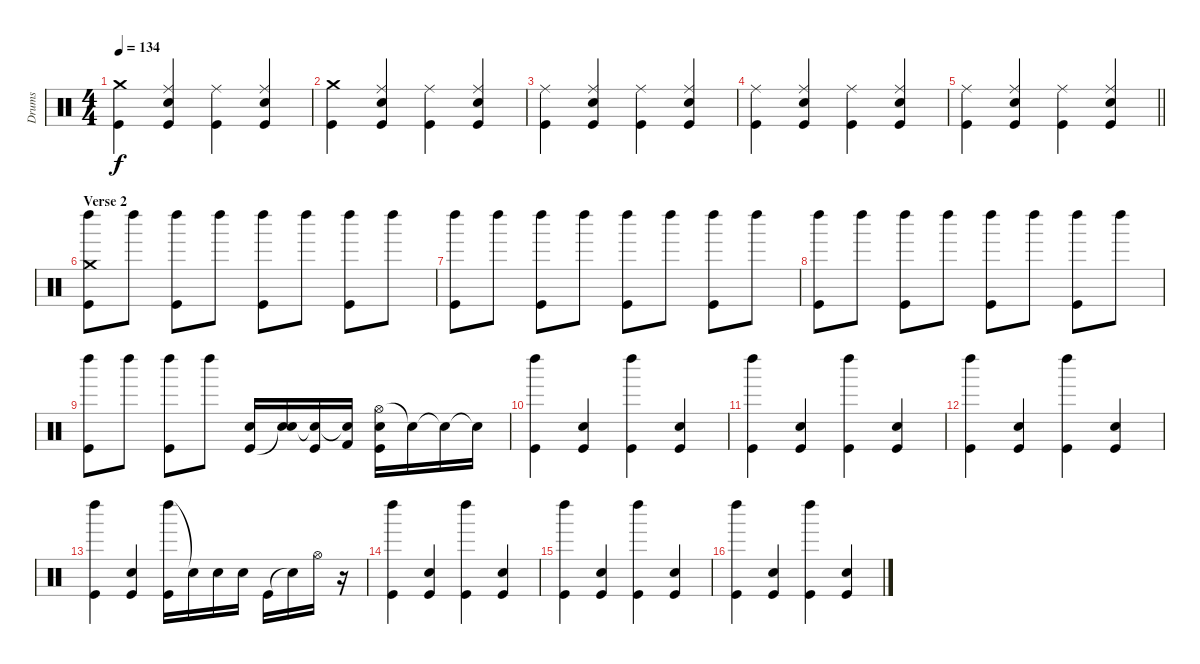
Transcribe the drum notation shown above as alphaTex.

\track ("Drums" "Drums") {solo instrument percussion}
\staff {score}
\articulation defaults
\ts (4 4)
\tempo 134
\clef neutral
\ks c
("Crash medium (hit)" "Kick (hit)").4{dy f} ("Ride (middle)" "Kick (hit)" "Snare (hit) 2").4 ("Ride (middle)" "Kick (hit)").4 ("Ride (middle)" "Kick (hit)" "Snare (hit) 2").4 |
("Crash medium (hit)" "Kick (hit)").4 ("Ride (middle)" "Kick (hit)" "Snare (hit) 2").4 ("Ride (middle)" "Kick (hit)").4 ("Ride (middle)" "Kick (hit)" "Snare (hit) 2").4 |
("Ride (middle)" "Kick (hit)").4 ("Ride (middle)" "Kick (hit)" "Snare (hit) 2").4 ("Ride (middle)" "Kick (hit)").4 ("Ride (middle)" "Kick (hit)" "Snare (hit) 2").4 |
("Ride (middle)" "Kick (hit)").4 ("Ride (middle)" "Kick (hit)" "Snare (hit) 2").4 ("Ride (middle)" "Kick (hit)").4 ("Ride (middle)" "Kick (hit)" "Snare (hit) 2").4 |
\barLineRight lightlight
("Ride (middle)" "Kick (hit)").4 ("Ride (middle)" "Kick (hit)" "Snare (hit) 2").4 ("Ride (middle)" "Kick (hit)").4 ("Ride (middle)" "Kick (hit)" "Snare (hit) 2").4 |
\section ("" "Verse 2")
("Left Maraca (hit)" "Kick (hit)" "Crash medium (hit)").8 "Left Maraca (hit)".8 ("Left Maraca (hit)" "Kick (hit)").8 "Left Maraca (hit)".8 ("Left Maraca (hit)" "Kick (hit)").8 "Left Maraca (hit)".8 ("Left Maraca (hit)" "Kick (hit)").8 "Left Maraca (hit)".8 |
("Left Maraca (hit)" "Kick (hit)").8 "Left Maraca (hit)".8 ("Left Maraca (hit)" "Kick (hit)").8 "Left Maraca (hit)".8 ("Left Maraca (hit)" "Kick (hit)").8 "Left Maraca (hit)".8 ("Left Maraca (hit)" "Kick (hit)").8 "Left Maraca (hit)".8 |
("Left Maraca (hit)" "Kick (hit)").8 "Left Maraca (hit)".8 ("Left Maraca (hit)" "Kick (hit)").8 "Left Maraca (hit)".8 ("Left Maraca (hit)" "Kick (hit)").8 "Left Maraca (hit)".8 ("Left Maraca (hit)" "Kick (hit)").8 "Left Maraca (hit)".8 |
("Left Maraca (hit)" "Kick (hit)").8 "Left Maraca (hit)".8 ("Left Maraca (hit)" "Kick (hit)").8 "Left Maraca (hit)".8 ("Kick (hit)" "Snare (hit) 2").16 ("Snare (hit)"{t} "Snare (hit) 2").16 ("Snare (hit)"{t} "Kick (hit)").16 ("Snare (hit)"{t} "Kick (hit) 2").16 ("Hi-Hat (open)" "Kick (hit)" "Snare (hit) 2").16 "Snare (hit)"{t}.16 "Snare (hit)"{t}.16 "Snare (hit)"{t}.16 |
("Left Maraca (hit)" "Kick (hit)").4 ("Kick (hit)" "Snare (hit) 2").4 ("Left Maraca (hit)" "Kick (hit)").4 ("Kick (hit)" "Snare (hit) 2").4 |
("Left Maraca (hit)" "Kick (hit)").4 ("Kick (hit)" "Snare (hit) 2").4 ("Left Maraca (hit)" "Kick (hit)").4 ("Kick (hit)" "Snare (hit) 2").4 |
("Left Maraca (hit)" "Kick (hit)").4 ("Kick (hit)" "Snare (hit) 2").4 ("Left Maraca (hit)" "Kick (hit)").4 ("Kick (hit)" "Snare (hit) 2").4 |
("Left Maraca (hit)" "Kick (hit)").4 ("Kick (hit)" "Snare (hit) 2").4 ("Left Maraca (hit)" "Kick (hit)").16 "Snare (hit) 2"{t}.16 "Snare (hit) 2".16 "Snare (hit) 2".16 "Kick (hit)".16 "Snare (hit)"{t}.16 "Hi-Hat (open)".16 r.16 |
("Left Maraca (hit)" "Kick (hit)").4 ("Kick (hit)" "Snare (hit) 2").4 ("Left Maraca (hit)" "Kick (hit)").4 ("Kick (hit)" "Snare (hit) 2").4 |
("Left Maraca (hit)" "Kick (hit)").4 ("Kick (hit)" "Snare (hit) 2").4 ("Left Maraca (hit)" "Kick (hit)").4 ("Kick (hit)" "Snare (hit) 2").4 |
("Left Maraca (hit)" "Kick (hit)").4 ("Kick (hit)" "Snare (hit) 2").4 ("Left Maraca (hit)" "Kick (hit)").4 ("Kick (hit)" "Snare (hit) 2").4
